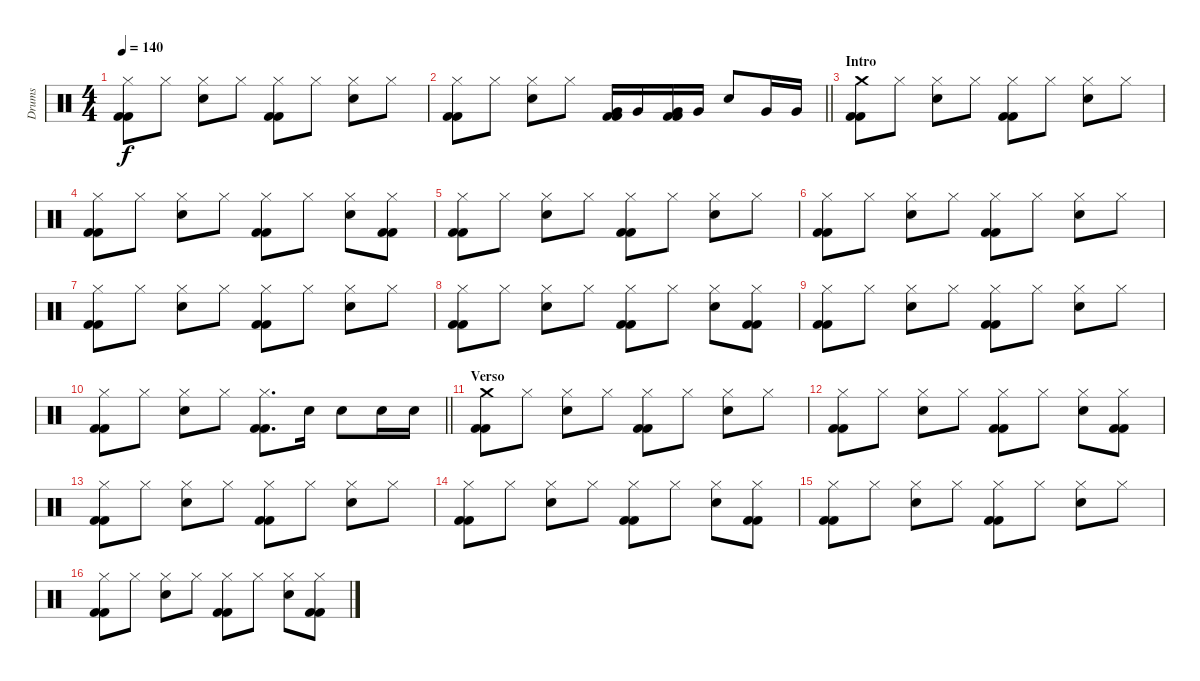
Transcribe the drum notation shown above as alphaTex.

\track ("Drums" "Drums") {instrument percussion}
\staff {score}
\articulation defaults
\ts (4 4)
\tempo 140
\clef neutral
\ks c
("Hi-Hat (closed)" "Kick (hit) 2" "Kick (hit) 2").8{dy f} "Hi-Hat (closed)".8 ("Hi-Hat (closed)" "Electric Snare (hit)").8 "Hi-Hat (closed)".8 ("Hi-Hat (closed)" "Kick (hit) 2" "Kick (hit) 2").8 "Hi-Hat (closed)".8 ("Hi-Hat (closed)" "Electric Snare (hit)").8 "Hi-Hat (closed)".8 |
\barLineRight lightlight
("Hi-Hat (closed)" "Kick (hit) 2" "Kick (hit) 2").8 "Hi-Hat (closed)".8 ("Hi-Hat (closed)" "Electric Snare (hit)").8 "Hi-Hat (closed)".8 ("Very Low Tom (hit)" "Kick (hit) 2" "Kick (hit) 2").16 "Very Low Tom (hit)".16 ("Very Low Tom (hit)" "Kick (hit) 2" "Kick (hit) 2").16 "Very Low Tom (hit)".16 "Electric Snare (hit)".8 "Very Low Tom (hit)".16 "Very Low Tom (hit)".16 |
\section ("" "Intro")
("Crash medium (hit)" "Kick (hit) 2" "Kick (hit) 2").8 "Hi-Hat (closed)".8 ("Hi-Hat (closed)" "Electric Snare (hit)").8 "Hi-Hat (closed)".8 ("Hi-Hat (closed)" "Kick (hit) 2" "Kick (hit) 2").8 "Hi-Hat (closed)".8 ("Hi-Hat (closed)" "Electric Snare (hit)").8 "Hi-Hat (closed)".8 |
("Hi-Hat (closed)" "Kick (hit) 2" "Kick (hit) 2").8 "Hi-Hat (closed)".8 ("Hi-Hat (closed)" "Electric Snare (hit)").8 "Hi-Hat (closed)".8 ("Hi-Hat (closed)" "Kick (hit) 2" "Kick (hit) 2").8 "Hi-Hat (closed)".8 ("Hi-Hat (closed)" "Electric Snare (hit)").8 ("Hi-Hat (closed)" "Kick (hit) 2" "Kick (hit) 2").8 |
("Hi-Hat (closed)" "Kick (hit) 2" "Kick (hit) 2").8 "Hi-Hat (closed)".8 ("Hi-Hat (closed)" "Electric Snare (hit)").8 "Hi-Hat (closed)".8 ("Hi-Hat (closed)" "Kick (hit) 2" "Kick (hit) 2").8 "Hi-Hat (closed)".8 ("Hi-Hat (closed)" "Electric Snare (hit)").8 "Hi-Hat (closed)".8 |
("Hi-Hat (closed)" "Kick (hit) 2" "Kick (hit) 2").8 "Hi-Hat (closed)".8 ("Hi-Hat (closed)" "Electric Snare (hit)").8 "Hi-Hat (closed)".8 ("Hi-Hat (closed)" "Kick (hit) 2" "Kick (hit) 2").8 "Hi-Hat (closed)".8 ("Hi-Hat (closed)" "Electric Snare (hit)").8 "Hi-Hat (closed)".8 |
("Hi-Hat (closed)" "Kick (hit) 2" "Kick (hit) 2").8 "Hi-Hat (closed)".8 ("Hi-Hat (closed)" "Electric Snare (hit)").8 "Hi-Hat (closed)".8 ("Hi-Hat (closed)" "Kick (hit) 2" "Kick (hit) 2").8 "Hi-Hat (closed)".8 ("Hi-Hat (closed)" "Electric Snare (hit)").8 "Hi-Hat (closed)".8 |
("Hi-Hat (closed)" "Kick (hit) 2" "Kick (hit) 2").8 "Hi-Hat (closed)".8 ("Hi-Hat (closed)" "Electric Snare (hit)").8 "Hi-Hat (closed)".8 ("Hi-Hat (closed)" "Kick (hit) 2" "Kick (hit) 2").8 "Hi-Hat (closed)".8 ("Hi-Hat (closed)" "Electric Snare (hit)").8 ("Hi-Hat (closed)" "Kick (hit) 2" "Kick (hit) 2").8 |
("Hi-Hat (closed)" "Kick (hit) 2" "Kick (hit) 2").8 "Hi-Hat (closed)".8 ("Hi-Hat (closed)" "Electric Snare (hit)").8 "Hi-Hat (closed)".8 ("Hi-Hat (closed)" "Kick (hit) 2" "Kick (hit) 2").8 "Hi-Hat (closed)".8 ("Hi-Hat (closed)" "Electric Snare (hit)").8 "Hi-Hat (closed)".8 |
\barLineRight lightlight
("Hi-Hat (closed)" "Kick (hit) 2" "Kick (hit) 2").8 "Hi-Hat (closed)".8 ("Hi-Hat (closed)" "Electric Snare (hit)").8 "Hi-Hat (closed)".8 ("Hi-Hat (closed)" "Kick (hit) 2" "Kick (hit) 2").8{d} "Electric Snare (hit)".16 "Electric Snare (hit)".8 "Electric Snare (hit)".16 "Electric Snare (hit)".16 |
\section ("" "Verso")
("Crash medium (hit)" "Kick (hit) 2" "Kick (hit) 2").8 "Hi-Hat (closed)".8 ("Hi-Hat (closed)" "Electric Snare (hit)").8 "Hi-Hat (closed)".8 ("Hi-Hat (closed)" "Kick (hit) 2" "Kick (hit) 2").8 "Hi-Hat (closed)".8 ("Hi-Hat (closed)" "Electric Snare (hit)").8 "Hi-Hat (closed)".8 |
("Hi-Hat (closed)" "Kick (hit) 2" "Kick (hit) 2").8 "Hi-Hat (closed)".8 ("Hi-Hat (closed)" "Electric Snare (hit)").8 "Hi-Hat (closed)".8 ("Hi-Hat (closed)" "Kick (hit) 2" "Kick (hit) 2").8 "Hi-Hat (closed)".8 ("Hi-Hat (closed)" "Electric Snare (hit)").8 ("Hi-Hat (closed)" "Kick (hit) 2" "Kick (hit) 2").8 |
("Hi-Hat (closed)" "Kick (hit) 2" "Kick (hit) 2").8 "Hi-Hat (closed)".8 ("Hi-Hat (closed)" "Electric Snare (hit)").8 "Hi-Hat (closed)".8 ("Hi-Hat (closed)" "Kick (hit) 2" "Kick (hit) 2").8 "Hi-Hat (closed)".8 ("Hi-Hat (closed)" "Electric Snare (hit)").8 "Hi-Hat (closed)".8 |
("Hi-Hat (closed)" "Kick (hit) 2" "Kick (hit) 2").8 "Hi-Hat (closed)".8 ("Hi-Hat (closed)" "Electric Snare (hit)").8 "Hi-Hat (closed)".8 ("Hi-Hat (closed)" "Kick (hit) 2" "Kick (hit) 2").8 "Hi-Hat (closed)".8 ("Hi-Hat (closed)" "Electric Snare (hit)").8 ("Hi-Hat (closed)" "Kick (hit) 2" "Kick (hit) 2").8 |
("Hi-Hat (closed)" "Kick (hit) 2" "Kick (hit) 2").8 "Hi-Hat (closed)".8 ("Hi-Hat (closed)" "Electric Snare (hit)").8 "Hi-Hat (closed)".8 ("Hi-Hat (closed)" "Kick (hit) 2" "Kick (hit) 2").8 "Hi-Hat (closed)".8 ("Hi-Hat (closed)" "Electric Snare (hit)").8 "Hi-Hat (closed)".8 |
("Hi-Hat (closed)" "Kick (hit) 2" "Kick (hit) 2").8 "Hi-Hat (closed)".8 ("Hi-Hat (closed)" "Electric Snare (hit)").8 "Hi-Hat (closed)".8 ("Hi-Hat (closed)" "Kick (hit) 2" "Kick (hit) 2").8 "Hi-Hat (closed)".8 ("Hi-Hat (closed)" "Electric Snare (hit)").8 ("Hi-Hat (closed)" "Kick (hit) 2" "Kick (hit) 2").8
